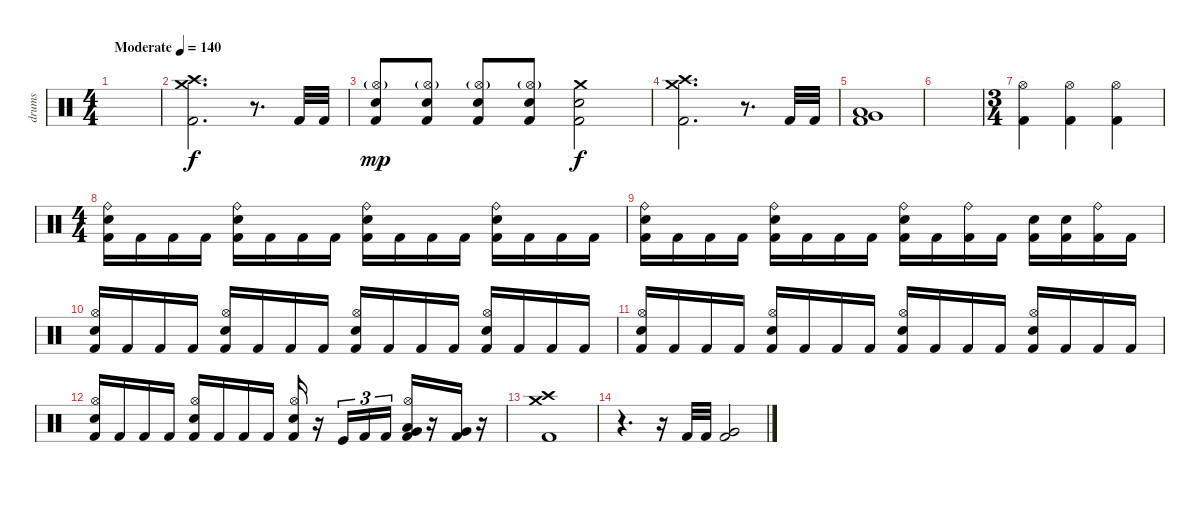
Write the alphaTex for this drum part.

\track ("drums" "drums") {instrument percussion}
\staff {score}
\articulation defaults
\ts (4 4)
\tempo (140 "Moderate")
\clef neutral
\ks c
|
("Crash medium (hit)" "Crash high (hit)" "Kick (hit) 2").2{d} r.8{d} "Kick (hit) 2".32 "Kick (hit) 2".32 |
("Hi-Hat (open)"{g} "Electric Snare (hit)" "Kick (hit) 2").8{dy mp} ("Hi-Hat (open)"{g} "Electric Snare (hit)" "Kick (hit) 2").8 ("Hi-Hat (open)"{g} "Electric Snare (hit)" "Kick (hit) 2").8 ("Hi-Hat (open)"{g} "Electric Snare (hit)" "Kick (hit) 2").8 ("Crash medium (hit)" "Electric Snare (hit)" "Kick (hit) 2").2{dy f} |
("Crash high (hit)" "Crash medium (hit)" "Kick (hit) 2").2{d} r.8{d} "Kick (hit) 2".32 "Kick (hit) 2".32 |
("Very Low Tom (hit)" "Low Floor Tom (hit)" "Kick (hit) 2").1 |
|
\ts (3 4)
("Hi-Hat (open)" "Kick (hit) 2").4 ("Hi-Hat (open)" "Kick (hit) 2").4 ("Hi-Hat (open)" "Kick (hit) 2").4 |
\ts (4 4)
("Ride (bell)" "Electric Snare (hit)" "Kick (hit) 2").16 "Kick (hit) 2".16 "Kick (hit) 2".16 "Kick (hit) 2".16 ("Ride (bell)" "Electric Snare (hit)" "Kick (hit) 2").16 "Kick (hit) 2".16 "Kick (hit) 2".16 "Kick (hit) 2".16 ("Ride (bell)" "Electric Snare (hit)" "Kick (hit) 2").16 "Kick (hit) 2".16 "Kick (hit) 2".16 "Kick (hit) 2".16 ("Ride (bell)" "Electric Snare (hit)" "Kick (hit) 2").16 "Kick (hit) 2".16 "Kick (hit) 2".16 "Kick (hit) 2".16 |
("Ride (bell)" "Electric Snare (hit)" "Kick (hit) 2").16 "Kick (hit) 2".16 "Kick (hit) 2".16 "Kick (hit) 2".16 ("Ride (bell)" "Electric Snare (hit)" "Kick (hit) 2").16 "Kick (hit) 2".16 "Kick (hit) 2".16 "Kick (hit) 2".16 ("Ride (bell)" "Electric Snare (hit)" "Kick (hit) 2").16 "Kick (hit) 2".16 ("Ride (bell)" "Kick (hit) 2").16 "Kick (hit) 2".16 ("Electric Snare (hit)" "Kick (hit) 2").16 ("Electric Snare (hit)" "Kick (hit) 2").16 ("Ride (bell)" "Kick (hit) 2").16 "Kick (hit) 2".16 |
("Hi-Hat (open)" "Electric Snare (hit)" "Kick (hit) 2").16 "Kick (hit) 2".16 "Kick (hit) 2".16 "Kick (hit) 2".16 ("Hi-Hat (open)" "Electric Snare (hit)" "Kick (hit) 2").16 "Kick (hit) 2".16 "Kick (hit) 2".16 "Kick (hit) 2".16 ("Hi-Hat (open)" "Electric Snare (hit)" "Kick (hit) 2").16 "Kick (hit) 2".16 "Kick (hit) 2".16 "Kick (hit) 2".16 ("Hi-Hat (open)" "Electric Snare (hit)" "Kick (hit) 2").16 "Kick (hit) 2".16 "Kick (hit) 2".16 "Kick (hit) 2".16 |
("Hi-Hat (open)" "Electric Snare (hit)" "Kick (hit) 2").16 "Kick (hit) 2".16 "Kick (hit) 2".16 "Kick (hit) 2".16 ("Hi-Hat (open)" "Electric Snare (hit)" "Kick (hit) 2").16 "Kick (hit) 2".16 "Kick (hit) 2".16 "Kick (hit) 2".16 ("Hi-Hat (open)" "Electric Snare (hit)" "Kick (hit) 2").16 "Kick (hit) 2".16 "Kick (hit) 2".16 "Kick (hit) 2".16 ("Hi-Hat (open)" "Electric Snare (hit)" "Kick (hit) 2").16 "Kick (hit) 2".16 "Kick (hit) 2".16 "Kick (hit) 2".16 |
("Hi-Hat (open)" "Electric Snare (hit)" "Kick (hit) 2").16 "Kick (hit) 2".16 "Kick (hit) 2".16 "Kick (hit) 2".16 ("Hi-Hat (open)" "Electric Snare (hit)" "Kick (hit) 2").16 "Kick (hit) 2".16 "Kick (hit) 2".16 "Kick (hit) 2".16 ("Hi-Hat (open)" "Electric Snare (hit)" "Kick (hit) 2").16 r.16 "Kick (hit)".16{tu (3 2)} "Kick (hit) 2".16{tu (3 2)} "Kick (hit) 2".16{tu (3 2)} ("Hi-Hat (open)" "Very Low Tom (hit)" "Low Floor Tom (hit)" "Kick (hit) 2").16 r.16 ("Very Low Tom (hit)" "Kick (hit) 2").16 r.16 |
("Crash high (hit)" "Crash medium (hit)" "Kick (hit) 2").1 |
r.4{d} r.16 "Kick (hit) 2".32 "Kick (hit) 2".32 ("Very Low Tom (hit)" "Kick (hit) 2").2
